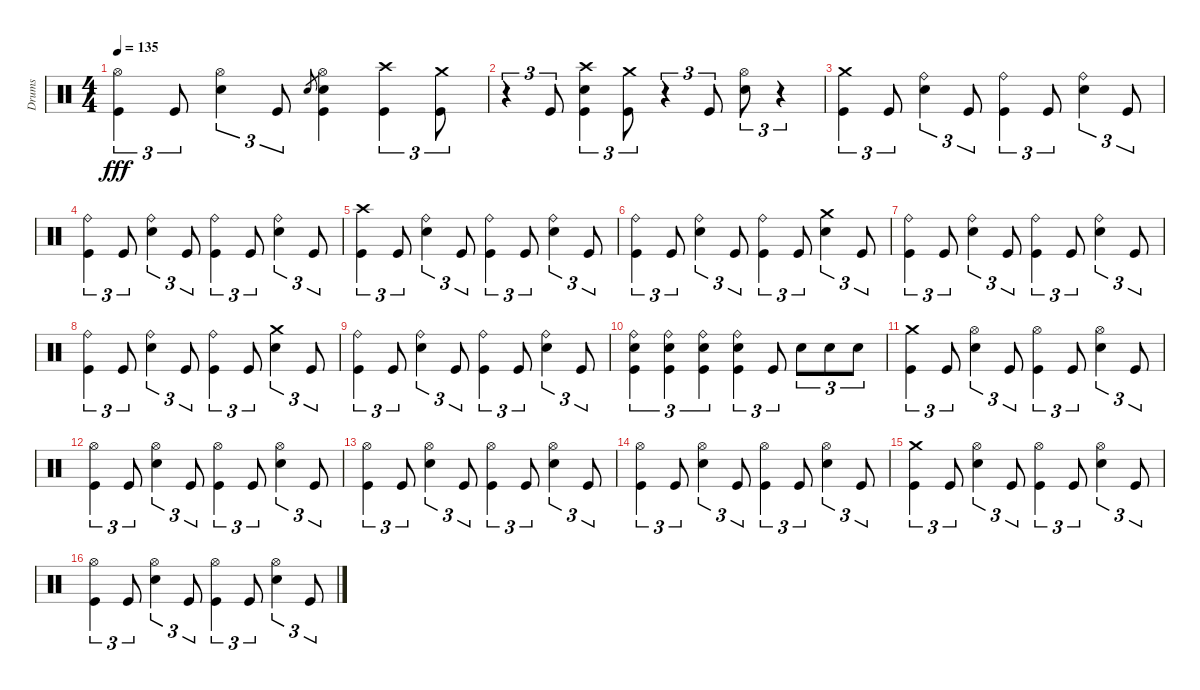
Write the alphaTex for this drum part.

\track ("Drums" "Drums") {instrument percussion}
\staff {score}
\articulation defaults
\ts (4 4)
\tempo 135
\clef neutral
\ks c
("Hi-Hat (open)" "Kick (hit)").4{tu (3 2) dy fff} "Kick (hit)".8{tu (3 2)} ("Hi-Hat (open)" "Snare (hit) 2").4{tu (3 2)} "Kick (hit)".8{tu (3 2)} "Snare (hit) 2".8{gr} ("Hi-Hat (open)" "Snare (hit) 2" "Kick (hit)").4 ("Crash high (hit)" "Kick (hit)").4{tu (3 2)} ("Crash medium (hit)" "Kick (hit)").8{tu (3 2)} |
r.4{tu (3 2)} "Kick (hit)".8{tu (3 2)} ("Crash high (hit)" "Snare (hit) 2" "Kick (hit)").4{tu (3 2)} ("Crash medium (hit)" "Kick (hit)").8{tu (3 2)} r.4{tu (3 2)} "Kick (hit)".8{tu (3 2)} ("Hi-Hat (open)" "Snare (hit) 2").8{tu (3 2)} r.4{tu (3 2)} |
("Crash medium (hit)" "Kick (hit)").4{tu (3 2)} "Kick (hit)".8{tu (3 2)} ("Ride (bell)" "Snare (hit) 2").4{tu (3 2)} "Kick (hit)".8{tu (3 2)} ("Ride (bell)" "Kick (hit)").4{tu (3 2)} "Kick (hit)".8{tu (3 2)} ("Ride (bell)" "Snare (hit) 2").4{tu (3 2)} "Kick (hit)".8{tu (3 2)} |
("Ride (bell)" "Kick (hit)").4{tu (3 2)} "Kick (hit)".8{tu (3 2)} ("Ride (bell)" "Snare (hit) 2").4{tu (3 2)} "Kick (hit)".8{tu (3 2)} ("Ride (bell)" "Kick (hit)").4{tu (3 2)} "Kick (hit)".8{tu (3 2)} ("Ride (bell)" "Snare (hit) 2").4{tu (3 2)} "Kick (hit)".8{tu (3 2)} |
("Crash high (hit)" "Kick (hit)").4{tu (3 2)} "Kick (hit)".8{tu (3 2)} ("Ride (bell)" "Snare (hit) 2").4{tu (3 2)} "Kick (hit)".8{tu (3 2)} ("Ride (bell)" "Kick (hit)").4{tu (3 2)} "Kick (hit)".8{tu (3 2)} ("Ride (bell)" "Snare (hit) 2").4{tu (3 2)} "Kick (hit)".8{tu (3 2)} |
("Ride (bell)" "Kick (hit)").4{tu (3 2)} "Kick (hit)".8{tu (3 2)} ("Ride (bell)" "Snare (hit) 2").4{tu (3 2)} "Kick (hit)".8{tu (3 2)} ("Ride (bell)" "Kick (hit)").4{tu (3 2)} "Kick (hit)".8{tu (3 2)} ("Crash medium (hit)" "Snare (hit) 2").4{tu (3 2)} "Kick (hit)".8{tu (3 2)} |
("Ride (bell)" "Kick (hit)").4{tu (3 2)} "Kick (hit)".8{tu (3 2)} ("Ride (bell)" "Snare (hit) 2").4{tu (3 2)} "Kick (hit)".8{tu (3 2)} ("Ride (bell)" "Kick (hit)").4{tu (3 2)} "Kick (hit)".8{tu (3 2)} ("Ride (bell)" "Snare (hit) 2").4{tu (3 2)} "Kick (hit)".8{tu (3 2)} |
("Ride (bell)" "Kick (hit)").4{tu (3 2)} "Kick (hit)".8{tu (3 2)} ("Ride (bell)" "Snare (hit) 2").4{tu (3 2)} "Kick (hit)".8{tu (3 2)} ("Ride (bell)" "Kick (hit)").4{tu (3 2)} "Kick (hit)".8{tu (3 2)} ("Crash medium (hit)" "Snare (hit) 2").4{tu (3 2)} "Kick (hit)".8{tu (3 2)} |
("Ride (bell)" "Kick (hit)").4{tu (3 2)} "Kick (hit)".8{tu (3 2)} ("Ride (bell)" "Snare (hit) 2").4{tu (3 2)} "Kick (hit)".8{tu (3 2)} ("Ride (bell)" "Kick (hit)").4{tu (3 2)} "Kick (hit)".8{tu (3 2)} ("Ride (bell)" "Snare (hit) 2").4{tu (3 2)} "Kick (hit)".8{tu (3 2)} |
("Ride (bell)" "Snare (hit) 2" "Kick (hit)").4{tu (3 2)} ("Ride (bell)" "Snare (hit) 2" "Kick (hit)").4{tu (3 2)} ("Ride (bell)" "Snare (hit) 2" "Kick (hit)").4{tu (3 2)} ("Ride (bell)" "Snare (hit) 2" "Kick (hit)").4{tu (3 2)} "Kick (hit)".8{tu (3 2)} "Snare (hit) 2".8{tu (3 2)} "Snare (hit) 2".8{tu (3 2)} "Snare (hit) 2".8{tu (3 2)} |
("Crash medium (hit)" "Kick (hit)").4{tu (3 2)} "Kick (hit)".8{tu (3 2)} ("Hi-Hat (open)" "Snare (hit) 2").4{tu (3 2)} "Kick (hit)".8{tu (3 2)} ("Hi-Hat (open)" "Kick (hit)").4{tu (3 2)} "Kick (hit)".8{tu (3 2)} ("Hi-Hat (open)" "Snare (hit) 2").4{tu (3 2)} "Kick (hit)".8{tu (3 2)} |
("Hi-Hat (open)" "Kick (hit)").4{tu (3 2)} "Kick (hit)".8{tu (3 2)} ("Hi-Hat (open)" "Snare (hit) 2").4{tu (3 2)} "Kick (hit)".8{tu (3 2)} ("Hi-Hat (open)" "Kick (hit)").4{tu (3 2)} "Kick (hit)".8{tu (3 2)} ("Hi-Hat (open)" "Snare (hit) 2").4{tu (3 2)} "Kick (hit)".8{tu (3 2)} |
("Hi-Hat (open)" "Kick (hit)").4{tu (3 2)} "Kick (hit)".8{tu (3 2)} ("Hi-Hat (open)" "Snare (hit) 2").4{tu (3 2)} "Kick (hit)".8{tu (3 2)} ("Hi-Hat (open)" "Kick (hit)").4{tu (3 2)} "Kick (hit)".8{tu (3 2)} ("Hi-Hat (open)" "Snare (hit) 2").4{tu (3 2)} "Kick (hit)".8{tu (3 2)} |
("Hi-Hat (open)" "Kick (hit)").4{tu (3 2)} "Kick (hit)".8{tu (3 2)} ("Hi-Hat (open)" "Snare (hit) 2").4{tu (3 2)} "Kick (hit)".8{tu (3 2)} ("Hi-Hat (open)" "Kick (hit)").4{tu (3 2)} "Kick (hit)".8{tu (3 2)} ("Hi-Hat (open)" "Snare (hit) 2").4{tu (3 2)} "Kick (hit)".8{tu (3 2)} |
("Crash medium (hit)" "Kick (hit)").4{tu (3 2)} "Kick (hit)".8{tu (3 2)} ("Hi-Hat (open)" "Snare (hit) 2").4{tu (3 2)} "Kick (hit)".8{tu (3 2)} ("Hi-Hat (open)" "Kick (hit)").4{tu (3 2)} "Kick (hit)".8{tu (3 2)} ("Hi-Hat (open)" "Snare (hit) 2").4{tu (3 2)} "Kick (hit)".8{tu (3 2)} |
("Hi-Hat (open)" "Kick (hit)").4{tu (3 2)} "Kick (hit)".8{tu (3 2)} ("Hi-Hat (open)" "Snare (hit) 2").4{tu (3 2)} "Kick (hit)".8{tu (3 2)} ("Hi-Hat (open)" "Kick (hit)").4{tu (3 2)} "Kick (hit)".8{tu (3 2)} ("Hi-Hat (open)" "Snare (hit) 2").4{tu (3 2)} "Kick (hit)".8{tu (3 2)}
